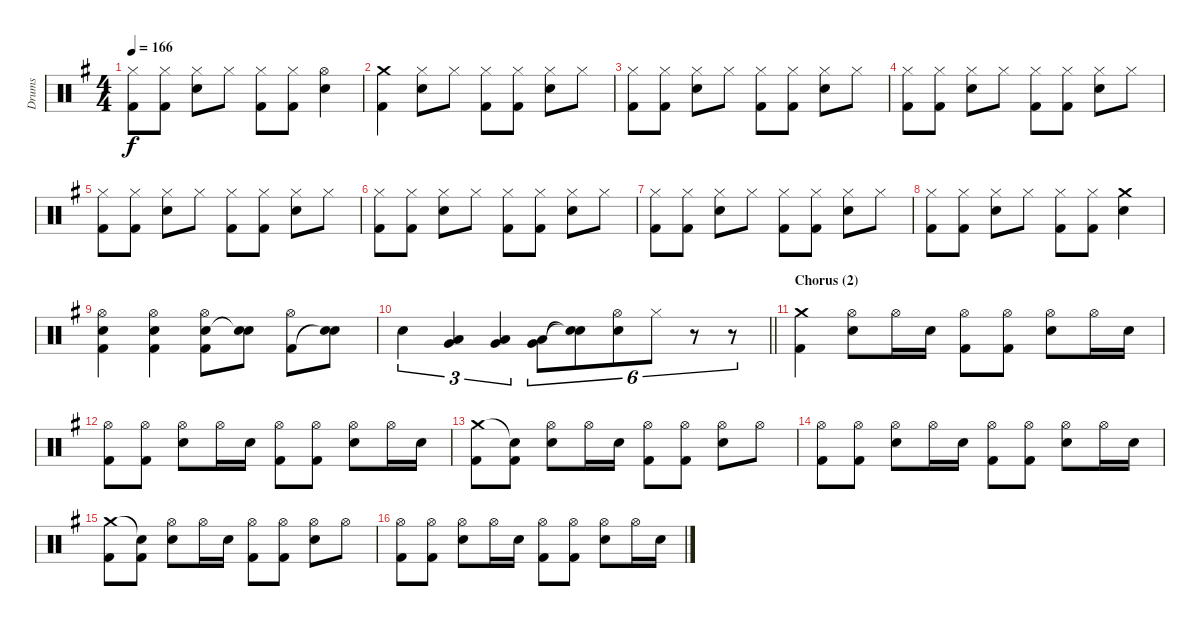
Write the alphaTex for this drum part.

\track ("Drums" "Drums") {instrument percussion}
\staff {score}
\articulation defaults
\ts (4 4)
\tempo 166
\clef neutral
\ks g
("Hi-Hat (closed)" "Kick (hit) 2").8{dy f} ("Hi-Hat (closed)" "Kick (hit) 2").8 ("Hi-Hat (closed)" "Electric Snare (hit)").8 "Hi-Hat (closed)".8 ("Hi-Hat (closed)" "Kick (hit) 2").8 ("Hi-Hat (closed)" "Kick (hit) 2").8 ("Hi-Hat (open)" "Electric Snare (hit)").4 |
("Crash medium (hit)" "Kick (hit) 2").4 ("Hi-Hat (closed)" "Electric Snare (hit)").8 "Hi-Hat (closed)".8 ("Hi-Hat (closed)" "Kick (hit) 2").8 ("Hi-Hat (closed)" "Kick (hit) 2").8 ("Hi-Hat (closed)" "Electric Snare (hit)").8 "Hi-Hat (closed)".8 |
("Hi-Hat (closed)" "Kick (hit) 2").8 ("Hi-Hat (closed)" "Kick (hit) 2").8 ("Hi-Hat (closed)" "Electric Snare (hit)").8 "Hi-Hat (closed)".8 ("Hi-Hat (closed)" "Kick (hit) 2").8 ("Hi-Hat (closed)" "Kick (hit) 2").8 ("Hi-Hat (closed)" "Electric Snare (hit)").8 "Hi-Hat (closed)".8 |
("Hi-Hat (closed)" "Kick (hit) 2").8 ("Hi-Hat (closed)" "Kick (hit) 2").8 ("Hi-Hat (closed)" "Electric Snare (hit)").8 "Hi-Hat (closed)".8 ("Hi-Hat (closed)" "Kick (hit) 2").8 ("Hi-Hat (closed)" "Kick (hit) 2").8 ("Hi-Hat (closed)" "Electric Snare (hit)").8 "Hi-Hat (closed)".8 |
("Hi-Hat (closed)" "Kick (hit) 2").8 ("Hi-Hat (closed)" "Kick (hit) 2").8 ("Hi-Hat (closed)" "Electric Snare (hit)").8 "Hi-Hat (closed)".8 ("Hi-Hat (closed)" "Kick (hit) 2").8 ("Hi-Hat (closed)" "Kick (hit) 2").8 ("Hi-Hat (closed)" "Electric Snare (hit)").8 "Hi-Hat (closed)".8 |
("Hi-Hat (closed)" "Kick (hit) 2").8 ("Hi-Hat (closed)" "Kick (hit) 2").8 ("Hi-Hat (closed)" "Electric Snare (hit)").8 "Hi-Hat (closed)".8 ("Hi-Hat (closed)" "Kick (hit) 2").8 ("Hi-Hat (closed)" "Kick (hit) 2").8 ("Hi-Hat (closed)" "Electric Snare (hit)").8 "Hi-Hat (closed)".8 |
("Hi-Hat (closed)" "Kick (hit) 2").8 ("Hi-Hat (closed)" "Kick (hit) 2").8 ("Hi-Hat (closed)" "Electric Snare (hit)").8 "Hi-Hat (closed)".8 ("Hi-Hat (closed)" "Kick (hit) 2").8 ("Hi-Hat (closed)" "Kick (hit) 2").8 ("Hi-Hat (closed)" "Electric Snare (hit)").8 "Hi-Hat (closed)".8 |
("Hi-Hat (closed)" "Kick (hit) 2").8 ("Hi-Hat (closed)" "Kick (hit) 2").8 ("Hi-Hat (closed)" "Electric Snare (hit)").8 "Hi-Hat (closed)".8 ("Hi-Hat (closed)" "Kick (hit) 2").8 ("Hi-Hat (closed)" "Kick (hit) 2").8 ("Crash medium (hit)" "Electric Snare (hit)").4 |
("Hi-Hat (open)" "Electric Snare (hit)" "Kick (hit) 2").4 ("Hi-Hat (open)" "Electric Snare (hit)" "Kick (hit) 2").4 ("Hi-Hat (open)" "Electric Snare (hit)" "Kick (hit) 2").8 ("Electric Snare (hit)" "Snare (hit)"{t}).8 ("Hi-Hat (open)" "Kick (hit) 2").8 ("Electric Snare (hit)" "Snare (hit)"{t}).8 |
\barLineRight lightlight "Electric Snare (hit)".4{tu (3 2)}
("Low Tom (hit)" "Very Low Tom (hit)").4{tu (3 2)} ("Low Tom (hit)" "Very Low Tom (hit)").4{tu (3 2)} ("Very Low Tom (hit)" "Low Floor Tom (hit)").8{tu (6 4)} ("Snare (hit)"{t} "Snare (hit)"{t}).8{tu (6 4)} ("Hi-Hat (open)" "Electric Snare (hit)").8{tu (6 4)} "Hi-Hat (closed)".8{tu (6 4)} r.8{tu (6 4)} r.8{tu (6 4)} |
\section ("" "Chorus (2)")
("Crash medium (hit)" "Kick (hit) 2").4 ("Hi-Hat (open)" "Electric Snare (hit)").8 "Hi-Hat (open)".16 "Electric Snare (hit)".16 ("Hi-Hat (open)" "Kick (hit) 2").8 ("Hi-Hat (open)" "Kick (hit) 2").8 ("Hi-Hat (open)" "Electric Snare (hit)").8 "Hi-Hat (open)".16 "Electric Snare (hit)".16 |
("Hi-Hat (open)" "Kick (hit) 2").8 ("Hi-Hat (open)" "Kick (hit) 2").8 ("Hi-Hat (open)" "Electric Snare (hit)").8 "Hi-Hat (open)".16 "Electric Snare (hit)".16 ("Hi-Hat (open)" "Kick (hit) 2").8 ("Hi-Hat (open)" "Kick (hit) 2").8 ("Hi-Hat (open)" "Electric Snare (hit)").8 "Hi-Hat (open)".16 "Electric Snare (hit)".16 |
("Crash medium (hit)" "Kick (hit) 2").8 ("Snare (hit)"{t} "Kick (hit) 2").8 ("Hi-Hat (open)" "Electric Snare (hit)").8 "Hi-Hat (open)".16 "Electric Snare (hit)".16 ("Hi-Hat (open)" "Kick (hit) 2").8 ("Hi-Hat (open)" "Kick (hit) 2").8 ("Hi-Hat (open)" "Electric Snare (hit)").8 "Hi-Hat (open)".8 |
("Hi-Hat (open)" "Kick (hit) 2").8 ("Hi-Hat (open)" "Kick (hit) 2").8 ("Hi-Hat (open)" "Electric Snare (hit)").8 "Hi-Hat (open)".16 "Electric Snare (hit)".16 ("Hi-Hat (open)" "Kick (hit) 2").8 ("Hi-Hat (open)" "Kick (hit) 2").8 ("Hi-Hat (open)" "Electric Snare (hit)").8 "Hi-Hat (open)".16 "Electric Snare (hit)".16 |
("Crash medium (hit)" "Kick (hit) 2").8 ("Snare (hit)"{t} "Kick (hit) 2").8 ("Hi-Hat (open)" "Electric Snare (hit)").8 "Hi-Hat (open)".16 "Electric Snare (hit)".16 ("Hi-Hat (open)" "Kick (hit) 2").8 ("Hi-Hat (open)" "Kick (hit) 2").8 ("Hi-Hat (open)" "Electric Snare (hit)").8 "Hi-Hat (open)".8 |
("Hi-Hat (open)" "Kick (hit) 2").8 ("Hi-Hat (open)" "Kick (hit) 2").8 ("Hi-Hat (open)" "Electric Snare (hit)").8 "Hi-Hat (open)".16 "Electric Snare (hit)".16 ("Hi-Hat (open)" "Kick (hit) 2").8 ("Hi-Hat (open)" "Kick (hit) 2").8 ("Hi-Hat (open)" "Electric Snare (hit)").8 "Hi-Hat (open)".16 "Electric Snare (hit)".16
